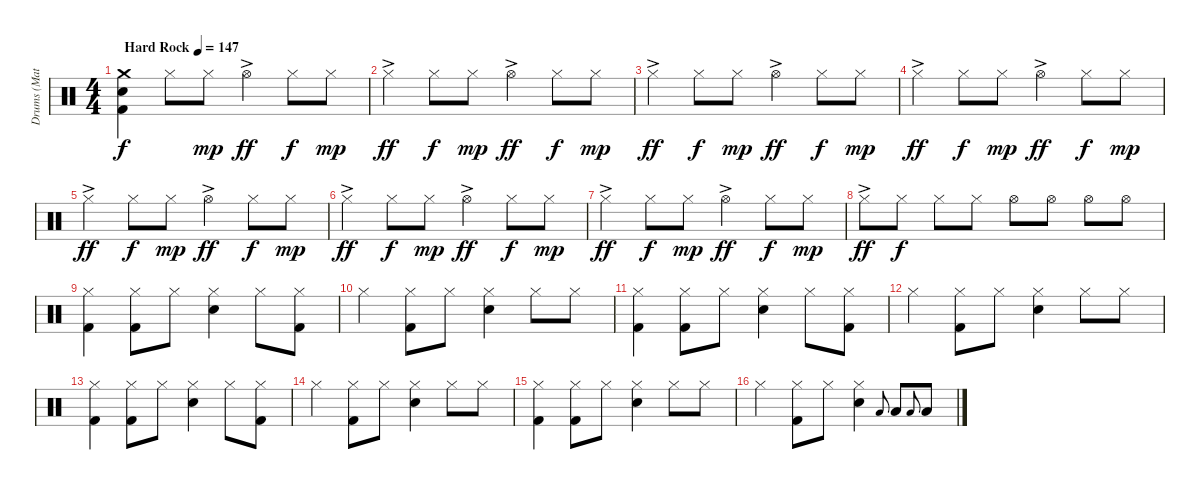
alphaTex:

\track ("Drums (Matt Laug)" "Drums (Mat") {instrument percussion}
\staff {score}
\articulation defaults
\ts (4 4)
\tempo (147 "Hard Rock")
\clef neutral
\ks c
("Crash medium (hit)" "Snare (hit) 2" "Kick (hit) 2").4{dy f} "Hi-Hat (closed)".8 "Hi-Hat (closed)".8{dy mp} "Hi-Hat (open)"{ac}.4{dy ff} "Hi-Hat (closed)".8{dy f} "Hi-Hat (closed)".8{dy mp} |
"Hi-Hat (closed)"{ac}.4{dy ff} "Hi-Hat (closed)".8{dy f} "Hi-Hat (closed)".8{dy mp} "Hi-Hat (open)"{ac}.4{dy ff} "Hi-Hat (closed)".8{dy f} "Hi-Hat (closed)".8{dy mp} |
"Hi-Hat (closed)"{ac}.4{dy ff} "Hi-Hat (closed)".8{dy f} "Hi-Hat (closed)".8{dy mp} "Hi-Hat (open)"{ac}.4{dy ff} "Hi-Hat (closed)".8{dy f} "Hi-Hat (closed)".8{dy mp} |
"Hi-Hat (closed)"{ac}.4{dy ff} "Hi-Hat (closed)".8{dy f} "Hi-Hat (closed)".8{dy mp} "Hi-Hat (open)"{ac}.4{dy ff} "Hi-Hat (closed)".8{dy f} "Hi-Hat (closed)".8{dy mp} |
"Hi-Hat (closed)"{ac}.4{dy ff} "Hi-Hat (closed)".8{dy f} "Hi-Hat (closed)".8{dy mp} "Hi-Hat (open)"{ac}.4{dy ff} "Hi-Hat (closed)".8{dy f} "Hi-Hat (closed)".8{dy mp} |
"Hi-Hat (closed)"{ac}.4{dy ff} "Hi-Hat (closed)".8{dy f} "Hi-Hat (closed)".8{dy mp} "Hi-Hat (open)"{ac}.4{dy ff} "Hi-Hat (closed)".8{dy f} "Hi-Hat (closed)".8{dy mp} |
"Hi-Hat (closed)"{ac}.4{dy ff} "Hi-Hat (closed)".8{dy f} "Hi-Hat (closed)".8{dy mp} "Hi-Hat (open)"{ac}.4{dy ff} "Hi-Hat (closed)".8{dy f} "Hi-Hat (closed)".8{dy mp} |
"Hi-Hat (closed)"{ac}.8{dy ff} "Hi-Hat (closed)".8{dy f} "Hi-Hat (closed)".8 "Hi-Hat (closed)".8 "Hi-Hat (open)".8 "Hi-Hat (open)".8 "Hi-Hat (open)".8 "Hi-Hat (open)".8 |
("Hi-Hat (closed)" "Kick (hit) 2").4 ("Hi-Hat (closed)" "Kick (hit) 2").8 "Hi-Hat (closed)".8 ("Hi-Hat (closed)" "Electric Snare (hit)").4 "Hi-Hat (closed)".8 ("Hi-Hat (closed)" "Kick (hit) 2").8 |
"Hi-Hat (closed)".4 ("Hi-Hat (closed)" "Kick (hit) 2").8 "Hi-Hat (closed)".8 ("Hi-Hat (closed)" "Electric Snare (hit)").4 "Hi-Hat (closed)".8 "Hi-Hat (closed)".8 |
("Hi-Hat (closed)" "Kick (hit) 2").4 ("Hi-Hat (closed)" "Kick (hit) 2").8 "Hi-Hat (closed)".8 ("Hi-Hat (closed)" "Electric Snare (hit)").4 "Hi-Hat (closed)".8 ("Hi-Hat (closed)" "Kick (hit) 2").8 |
"Hi-Hat (closed)".4 ("Hi-Hat (closed)" "Kick (hit) 2").8 "Hi-Hat (closed)".8 ("Hi-Hat (closed)" "Electric Snare (hit)").4 "Hi-Hat (closed)".8 "Hi-Hat (closed)".8 |
("Hi-Hat (closed)" "Kick (hit) 2").4 ("Hi-Hat (closed)" "Kick (hit) 2").8 "Hi-Hat (closed)".8 ("Hi-Hat (closed)" "Electric Snare (hit)").4 "Hi-Hat (closed)".8 ("Hi-Hat (closed)" "Kick (hit) 2").8 |
"Hi-Hat (closed)".4 ("Hi-Hat (closed)" "Kick (hit) 2").8 "Hi-Hat (closed)".8 ("Hi-Hat (closed)" "Electric Snare (hit)").4 "Hi-Hat (closed)".8 "Hi-Hat (closed)".8 |
("Hi-Hat (closed)" "Kick (hit) 2").4 ("Hi-Hat (closed)" "Kick (hit) 2").8 "Hi-Hat (closed)".8 ("Hi-Hat (closed)" "Electric Snare (hit)").4 "Hi-Hat (closed)".8 "Hi-Hat (closed)".8 |
"Hi-Hat (closed)".4 ("Hi-Hat (closed)" "Kick (hit) 2").8 "Hi-Hat (closed)".8 ("Hi-Hat (closed)" "Electric Snare (hit)").4 "Low Tom (hit)".8{gr onbeat} "Low Tom (hit)".8 "Low Tom (hit)".8{gr onbeat} "Low Tom (hit)".8
